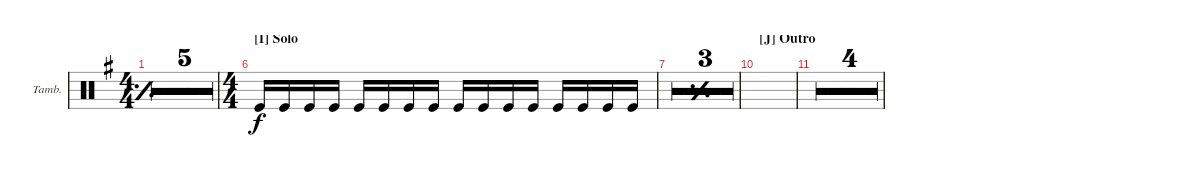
\defaultSystemsLayout 4
\bracketExtendMode groupsimilarinstruments
\firstSystemTrackNameOrientation horizontal
\otherSystemsTrackNameOrientation horizontal
\track ("Tambourine" "Tamb.") {multiBarRest instrument percussion}
\staff {score}
\articulation defaults
\ts (4 4)
\tempo 90
\clef neutral
\simile simple
\ks g
|
|
|
|
\ts (2 4)
r.2 |
\ts (4 4)
\section ("I" "Solo")
"Kick (hit)".16 "Kick (hit)".16 "Kick (hit)".16 "Kick (hit)".16 "Kick (hit)".16 "Kick (hit)".16 "Kick (hit)".16 "Kick (hit)".16 "Kick (hit)".16 "Kick (hit)".16 "Kick (hit)".16 "Kick (hit)".16 "Kick (hit)".16 "Kick (hit)".16 "Kick (hit)".16 "Kick (hit)".16 |
\simile simple
|
|
|
\section ("J" "Outro")
|
|
|
|
\simile none
r.1
